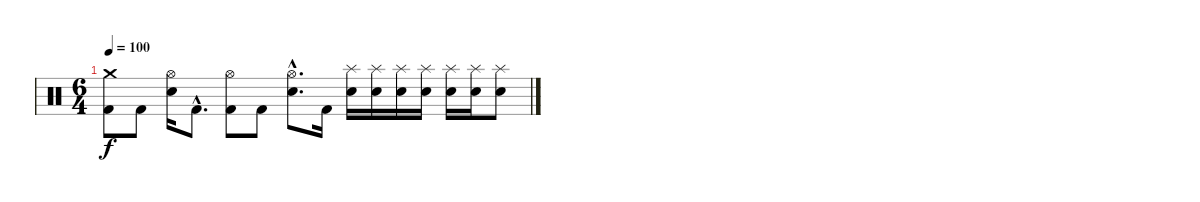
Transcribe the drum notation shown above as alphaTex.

\track "" {instrument percussion}
\staff {score}
\articulation defaults
\ts (6 4)
\tempo 100
\clef neutral
\ks c
("Crash medium (hit)" "Kick (hit) 2").8{dy f} "Kick (hit) 2".8 ("Hi-Hat (open)" "Electric Snare (hit)").16 "Kick (hit) 2"{hac}.8{d} ("Hi-Hat (open)" "Kick (hit) 2").8 "Kick (hit) 2".8 ("Hi-Hat (open)"{hac} "Electric Snare (hit)"{hac}).8{d} "Kick (hit) 2".16 ("Splash (hit)" "Electric Snare (hit)").16 ("Splash (hit)" "Electric Snare (hit)").16 ("Splash (hit)" "Electric Snare (hit)").16 ("Splash (hit)" "Electric Snare (hit)").16 ("Splash (hit)" "Electric Snare (hit)").16 ("Splash (hit)" "Electric Snare (hit)").16 ("Splash (hit)" "Electric Snare (hit)").8
